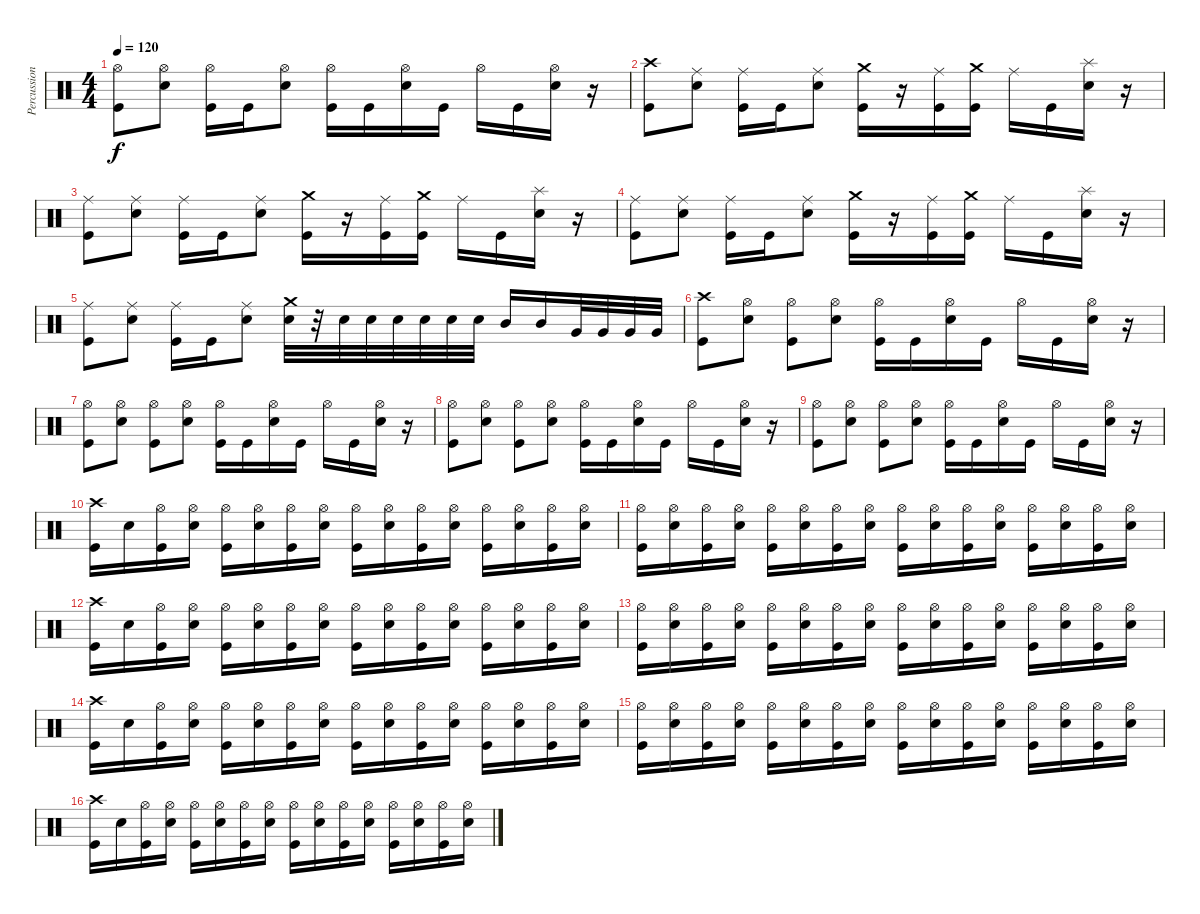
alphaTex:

\track ("Percussion" "Percussion") {instrument percussion}
\staff {score}
\articulation defaults
\ts (4 4)
\tempo 120
\clef neutral
\ks c
("Kick (hit)" "Hi-Hat (open)").8{dy f} ("Electric Snare (hit)" "Hi-Hat (open)").8 ("Hi-Hat (open)" "Kick (hit)").16 "Kick (hit)".16 ("Hi-Hat (open)" "Electric Snare (hit)").8 ("Hi-Hat (open)" "Kick (hit)").16 "Kick (hit)".16 ("Hi-Hat (open)" "Electric Snare (hit)").16 "Kick (hit)".16 "Hi-Hat (open)".16 "Kick (hit)".16 ("Hi-Hat (open)" "Electric Snare (hit)").16 r.16 |
("Kick (hit)" "Crash high (hit)").8 ("Electric Snare (hit)" "Ride (middle)").8 ("Kick (hit)" "Ride (middle)").16 "Kick (hit)".16 ("Ride (middle)" "Electric Snare (hit)").8 ("Crash medium (hit)" "Kick (hit)").16 r.16 ("Ride (middle)" "Kick (hit)").16 ("Crash medium (hit)" "Kick (hit)").16 "Ride (middle)".16 "Kick (hit)".16 ("Splash (hit)" "Electric Snare (hit)").16 r.16 |
("Kick (hit)" "Ride (middle)").8 ("Electric Snare (hit)" "Ride (middle)").8 ("Kick (hit)" "Ride (middle)").16 "Kick (hit)".16 ("Ride (middle)" "Electric Snare (hit)").8 ("Crash medium (hit)" "Kick (hit)").16 r.16 ("Ride (middle)" "Kick (hit)").16 ("Crash medium (hit)" "Kick (hit)").16 "Ride (middle)".16 "Kick (hit)".16 ("Splash (hit)" "Electric Snare (hit)").16 r.16 |
("Kick (hit)" "Ride (middle)").8 ("Electric Snare (hit)" "Ride (middle)").8 ("Kick (hit)" "Ride (middle)").16 "Kick (hit)".16 ("Ride (middle)" "Electric Snare (hit)").8 ("Crash medium (hit)" "Kick (hit)").16 r.16 ("Ride (middle)" "Kick (hit)").16 ("Crash medium (hit)" "Kick (hit)").16 "Ride (middle)".16 "Kick (hit)".16 ("Splash (hit)" "Electric Snare (hit)").16 r.16 |
("Kick (hit)" "Ride (middle)").8 ("Electric Snare (hit)" "Ride (middle)").8 ("Kick (hit)" "Ride (middle)").16 "Kick (hit)".16 ("Ride (middle)" "Electric Snare (hit)").8 ("Crash medium (hit)" "Electric Snare (hit)").32 r.32 "Electric Snare (hit)".32 "Electric Snare (hit)".32 "Electric Snare (hit)".32 "Electric Snare (hit)".32 "Electric Snare (hit)".32 "Electric Snare (hit)".32 "Mid Tom (hit)".16 "Mid Tom (hit)".16 "Very Low Tom (hit)".32 "Very Low Tom (hit)".32 "Very Low Tom (hit)".32 "Very Low Tom (hit)".32 |
("Kick (hit)" "Crash high (hit)").8 ("Electric Snare (hit)" "Hi-Hat (open)").8 ("Kick (hit)" "Hi-Hat (open)").8 ("Electric Snare (hit)" "Hi-Hat (open)").8 ("Hi-Hat (open)" "Kick (hit)").16 "Kick (hit)".16 ("Hi-Hat (open)" "Electric Snare (hit)").16 "Kick (hit)".16 "Hi-Hat (open)".16 "Kick (hit)".16 ("Hi-Hat (open)" "Electric Snare (hit)").16 r.16 |
("Kick (hit)" "Hi-Hat (open)").8 ("Electric Snare (hit)" "Hi-Hat (open)").8 ("Kick (hit)" "Hi-Hat (open)").8 ("Electric Snare (hit)" "Hi-Hat (open)").8 ("Hi-Hat (open)" "Kick (hit)").16 "Kick (hit)".16 ("Hi-Hat (open)" "Electric Snare (hit)").16 "Kick (hit)".16 "Hi-Hat (open)".16 "Kick (hit)".16 ("Hi-Hat (open)" "Electric Snare (hit)").16 r.16 |
("Kick (hit)" "Hi-Hat (open)").8 ("Electric Snare (hit)" "Hi-Hat (open)").8 ("Kick (hit)" "Hi-Hat (open)").8 ("Electric Snare (hit)" "Hi-Hat (open)").8 ("Hi-Hat (open)" "Kick (hit)").16 "Kick (hit)".16 ("Hi-Hat (open)" "Electric Snare (hit)").16 "Kick (hit)".16 "Hi-Hat (open)".16 "Kick (hit)".16 ("Hi-Hat (open)" "Electric Snare (hit)").16 r.16 |
("Kick (hit)" "Hi-Hat (open)").8 ("Electric Snare (hit)" "Hi-Hat (open)").8 ("Kick (hit)" "Hi-Hat (open)").8 ("Electric Snare (hit)" "Hi-Hat (open)").8 ("Hi-Hat (open)" "Kick (hit)").16 "Kick (hit)".16 ("Hi-Hat (open)" "Electric Snare (hit)").16 "Kick (hit)".16 "Hi-Hat (open)".16 "Kick (hit)".16 ("Hi-Hat (open)" "Electric Snare (hit)").16 r.16 |
("Crash high (hit)" "Kick (hit)").16 "Electric Snare (hit)".16 ("Hi-Hat (open)" "Kick (hit)").16 ("Hi-Hat (open)" "Electric Snare (hit)").16 ("Hi-Hat (open)" "Kick (hit)").16 ("Hi-Hat (open)" "Electric Snare (hit)").16 ("Hi-Hat (open)" "Kick (hit)").16 ("Hi-Hat (open)" "Electric Snare (hit)").16 ("Hi-Hat (open)" "Kick (hit)").16 ("Hi-Hat (open)" "Electric Snare (hit)").16 ("Hi-Hat (open)" "Kick (hit)").16 ("Hi-Hat (open)" "Electric Snare (hit)").16 ("Hi-Hat (open)" "Kick (hit)").16 ("Hi-Hat (open)" "Electric Snare (hit)").16 ("Hi-Hat (open)" "Kick (hit)").16 ("Hi-Hat (open)" "Electric Snare (hit)").16 |
("Hi-Hat (open)" "Kick (hit)").16 ("Hi-Hat (open)" "Electric Snare (hit)").16 ("Hi-Hat (open)" "Kick (hit)").16 ("Hi-Hat (open)" "Electric Snare (hit)").16 ("Hi-Hat (open)" "Kick (hit)").16 ("Hi-Hat (open)" "Electric Snare (hit)").16 ("Hi-Hat (open)" "Kick (hit)").16 ("Hi-Hat (open)" "Electric Snare (hit)").16 ("Hi-Hat (open)" "Kick (hit)").16 ("Hi-Hat (open)" "Electric Snare (hit)").16 ("Hi-Hat (open)" "Kick (hit)").16 ("Hi-Hat (open)" "Electric Snare (hit)").16 ("Hi-Hat (open)" "Kick (hit)").16 ("Hi-Hat (open)" "Electric Snare (hit)").16 ("Hi-Hat (open)" "Kick (hit)").16 ("Hi-Hat (open)" "Electric Snare (hit)").16 |
("Crash high (hit)" "Kick (hit)").16 "Electric Snare (hit)".16 ("Hi-Hat (open)" "Kick (hit)").16 ("Hi-Hat (open)" "Electric Snare (hit)").16 ("Hi-Hat (open)" "Kick (hit)").16 ("Hi-Hat (open)" "Electric Snare (hit)").16 ("Hi-Hat (open)" "Kick (hit)").16 ("Hi-Hat (open)" "Electric Snare (hit)").16 ("Hi-Hat (open)" "Kick (hit)").16 ("Hi-Hat (open)" "Electric Snare (hit)").16 ("Hi-Hat (open)" "Kick (hit)").16 ("Hi-Hat (open)" "Electric Snare (hit)").16 ("Hi-Hat (open)" "Kick (hit)").16 ("Hi-Hat (open)" "Electric Snare (hit)").16 ("Hi-Hat (open)" "Kick (hit)").16 ("Hi-Hat (open)" "Electric Snare (hit)").16 |
("Hi-Hat (open)" "Kick (hit)").16 ("Hi-Hat (open)" "Electric Snare (hit)").16 ("Hi-Hat (open)" "Kick (hit)").16 ("Hi-Hat (open)" "Electric Snare (hit)").16 ("Hi-Hat (open)" "Kick (hit)").16 ("Hi-Hat (open)" "Electric Snare (hit)").16 ("Hi-Hat (open)" "Kick (hit)").16 ("Hi-Hat (open)" "Electric Snare (hit)").16 ("Hi-Hat (open)" "Kick (hit)").16 ("Hi-Hat (open)" "Electric Snare (hit)").16 ("Hi-Hat (open)" "Kick (hit)").16 ("Hi-Hat (open)" "Electric Snare (hit)").16 ("Hi-Hat (open)" "Kick (hit)").16 ("Hi-Hat (open)" "Electric Snare (hit)").16 ("Hi-Hat (open)" "Kick (hit)").16 ("Hi-Hat (open)" "Electric Snare (hit)").16 |
("Crash high (hit)" "Kick (hit)").16 "Electric Snare (hit)".16 ("Hi-Hat (open)" "Kick (hit)").16 ("Hi-Hat (open)" "Electric Snare (hit)").16 ("Hi-Hat (open)" "Kick (hit)").16 ("Hi-Hat (open)" "Electric Snare (hit)").16 ("Hi-Hat (open)" "Kick (hit)").16 ("Hi-Hat (open)" "Electric Snare (hit)").16 ("Hi-Hat (open)" "Kick (hit)").16 ("Hi-Hat (open)" "Electric Snare (hit)").16 ("Hi-Hat (open)" "Kick (hit)").16 ("Hi-Hat (open)" "Electric Snare (hit)").16 ("Hi-Hat (open)" "Kick (hit)").16 ("Hi-Hat (open)" "Electric Snare (hit)").16 ("Hi-Hat (open)" "Kick (hit)").16 ("Hi-Hat (open)" "Electric Snare (hit)").16 |
("Hi-Hat (open)" "Kick (hit)").16 ("Hi-Hat (open)" "Electric Snare (hit)").16 ("Hi-Hat (open)" "Kick (hit)").16 ("Hi-Hat (open)" "Electric Snare (hit)").16 ("Hi-Hat (open)" "Kick (hit)").16 ("Hi-Hat (open)" "Electric Snare (hit)").16 ("Hi-Hat (open)" "Kick (hit)").16 ("Hi-Hat (open)" "Electric Snare (hit)").16 ("Hi-Hat (open)" "Kick (hit)").16 ("Hi-Hat (open)" "Electric Snare (hit)").16 ("Hi-Hat (open)" "Kick (hit)").16 ("Hi-Hat (open)" "Electric Snare (hit)").16 ("Hi-Hat (open)" "Kick (hit)").16 ("Hi-Hat (open)" "Electric Snare (hit)").16 ("Hi-Hat (open)" "Kick (hit)").16 ("Hi-Hat (open)" "Electric Snare (hit)").16 |
("Crash high (hit)" "Kick (hit)").16 "Electric Snare (hit)".16 ("Hi-Hat (open)" "Kick (hit)").16 ("Hi-Hat (open)" "Electric Snare (hit)").16 ("Hi-Hat (open)" "Kick (hit)").16 ("Hi-Hat (open)" "Electric Snare (hit)").16 ("Hi-Hat (open)" "Kick (hit)").16 ("Hi-Hat (open)" "Electric Snare (hit)").16 ("Hi-Hat (open)" "Kick (hit)").16 ("Hi-Hat (open)" "Electric Snare (hit)").16 ("Hi-Hat (open)" "Kick (hit)").16 ("Hi-Hat (open)" "Electric Snare (hit)").16 ("Hi-Hat (open)" "Kick (hit)").16 ("Hi-Hat (open)" "Electric Snare (hit)").16 ("Hi-Hat (open)" "Kick (hit)").16 ("Hi-Hat (open)" "Electric Snare (hit)").16
